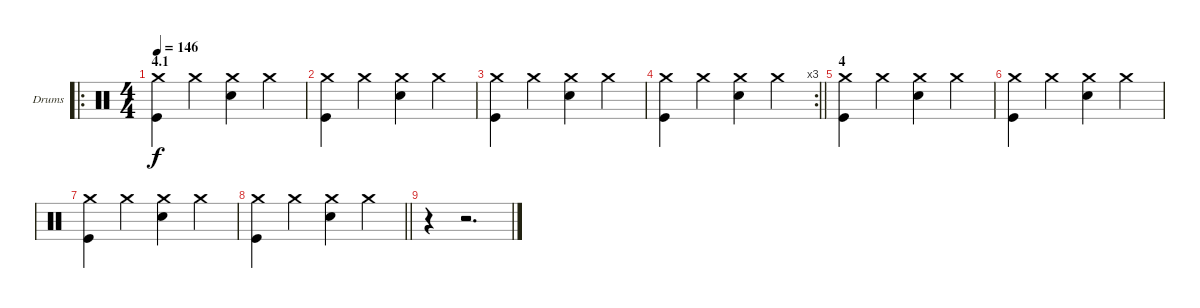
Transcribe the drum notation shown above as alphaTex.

\bracketExtendMode groupsimilarinstruments
\firstSystemTrackNameOrientation horizontal
\otherSystemsTrackNameOrientation horizontal
\track ("Drumkit" "Drums") {instrument percussion}
\staff {score}
\articulation defaults
\ro
\ts (4 4)
\section ("" "4.1")
\tempo 146
\clef neutral
\ks c
("Crash medium (hit)" "Kick (hit)").4{dy f} "Crash medium (hit)".4 ("Crash medium (hit)" "Snare (hit) 2").4 "Crash medium (hit)".4 |
("Crash medium (hit)" "Kick (hit)").4 "Crash medium (hit)".4 ("Crash medium (hit)" "Snare (hit) 2").4 "Crash medium (hit)".4 |
("Crash medium (hit)" "Kick (hit)").4 "Crash medium (hit)".4 ("Crash medium (hit)" "Snare (hit) 2").4 "Crash medium (hit)".4 |
\rc 3
\barLineRight lightlight
("Crash medium (hit)" "Kick (hit)").4 "Crash medium (hit)".4 ("Crash medium (hit)" "Snare (hit) 2").4 "Crash medium (hit)".4 |
\section ("" "4")
("Crash medium (hit)" "Kick (hit)").4 "Crash medium (hit)".4 ("Crash medium (hit)" "Snare (hit) 2").4 "Crash medium (hit)".4 |
("Crash medium (hit)" "Kick (hit)").4 "Crash medium (hit)".4 ("Crash medium (hit)" "Snare (hit) 2").4 "Crash medium (hit)".4 |
("Crash medium (hit)" "Kick (hit)").4 "Crash medium (hit)".4 ("Crash medium (hit)" "Snare (hit) 2").4 "Crash medium (hit)".4 |
\barLineRight lightlight
("Crash medium (hit)" "Kick (hit)").4 "Crash medium (hit)".4 ("Crash medium (hit)" "Snare (hit) 2").4 "Crash medium (hit)".4 |
r.4 r.2{d}
